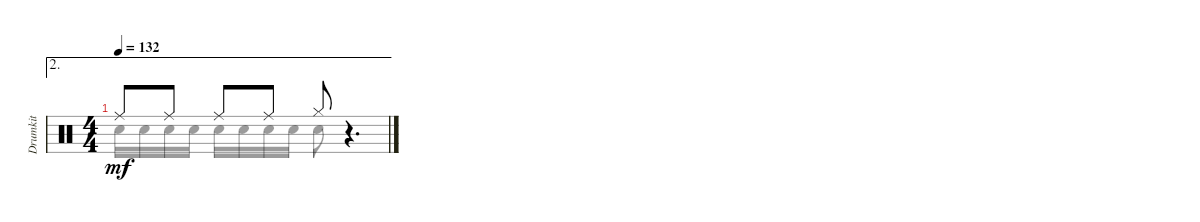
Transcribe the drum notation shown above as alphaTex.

\track ("Drumkit" "Drumkit") {instrument percussion}
\staff {score}
\articulation defaults
\voice
\ae 2
\ts (4 4)
\tempo 132
\clef neutral
\ks c "Ride (middle)".8{dy mf} "Ride (middle)".8 "Ride (middle)".8 "Ride (middle)".8 "Hi-Hat (closed)".8
r.4{d}
\voice
\clef neutral
\ottava regular
\simile none
\ks c "Snare (hit) 2".16{dy mf} "Snare (hit) 2".16 "Snare (hit) 2".16 "Snare (hit) 2".16 "Snare (hit) 2".16 "Snare (hit) 2".16 "Snare (hit) 2".16 "Snare (hit) 2".16 "Snare (hit) 2".8
r.4{d}
